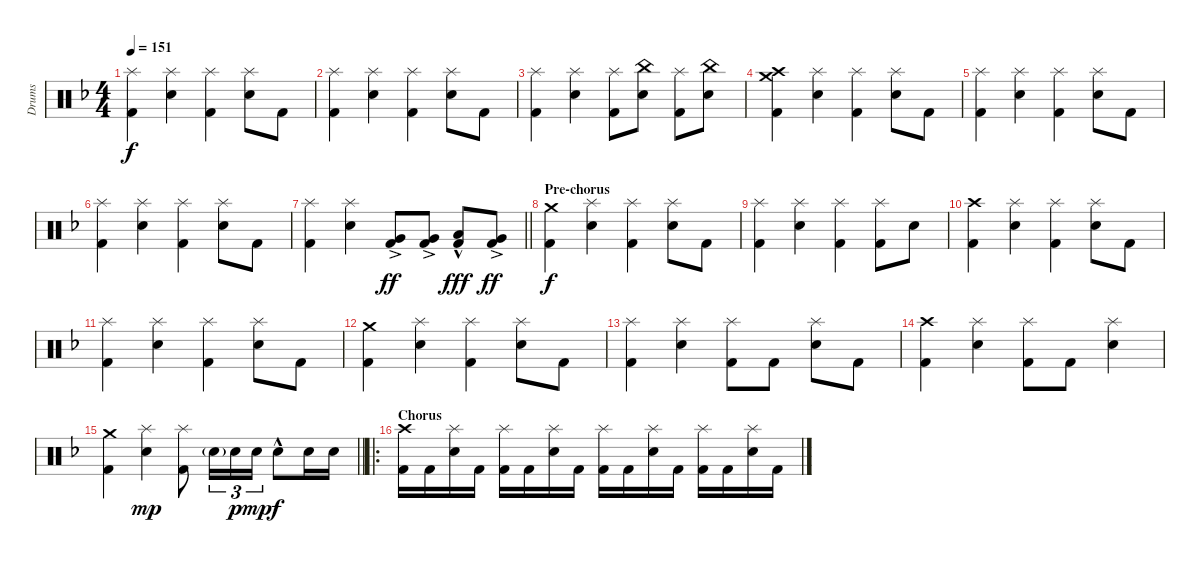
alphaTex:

\track ("Drums" "Drums") {instrument percussion}
\staff {score}
\articulation defaults
\ts (4 4)
\tempo 151
\clef neutral
\ks dminor
("Splash (hit)" "Kick (hit) 2").4{dy f} ("Splash (hit)" "Snare (hit) 2").4 ("Splash (hit)" "Kick (hit) 2").4 ("Splash (hit)" "Snare (hit) 2").8 "Kick (hit) 2".8 |
("Splash (hit)" "Kick (hit) 2").4 ("Splash (hit)" "Snare (hit) 2").4 ("Splash (hit)" "Kick (hit) 2").4 ("Splash (hit)" "Snare (hit) 2").8 "Kick (hit) 2".8 |
("Splash (hit)" "Kick (hit) 2").4 ("Splash (hit)" "Snare (hit) 2").4 ("Splash (hit)" "Kick (hit) 2").8 ("China (hit)" "Snare (hit) 2").8 ("Splash (hit)" "Kick (hit) 2").8 ("China (hit)" "Snare (hit) 2").8 |
("Crash high (hit)" "Crash medium (hit)" "Kick (hit) 2").4 ("Splash (hit)" "Snare (hit) 2").4 ("Splash (hit)" "Kick (hit) 2").4 ("Splash (hit)" "Snare (hit) 2").8 "Kick (hit) 2".8 |
("Splash (hit)" "Kick (hit) 2").4 ("Splash (hit)" "Snare (hit) 2").4 ("Splash (hit)" "Kick (hit) 2").4 ("Splash (hit)" "Snare (hit) 2").8 "Kick (hit) 2".8 |
("Splash (hit)" "Kick (hit) 2").4 ("Splash (hit)" "Snare (hit) 2").4 ("Splash (hit)" "Kick (hit) 2").4 ("Splash (hit)" "Snare (hit) 2").8 "Kick (hit) 2".8 |
\barLineRight lightlight
("Splash (hit)" "Kick (hit) 2").4 ("Splash (hit)" "Snare (hit) 2").4 ("Very Low Tom (hit)"{ac} "Kick (hit) 2").8{dy ff} ("Very Low Tom (hit)"{ac} "Kick (hit) 2").8 ("Low Tom (hit)"{hac} "Kick (hit) 2").8{dy fff} ("Very Low Tom (hit)"{ac} "Kick (hit) 2").8{dy ff} |
\section ("" "Pre-chorus")
("Crash medium (hit)" "Kick (hit) 2").4{dy f} ("Splash (hit)" "Snare (hit) 2").4 ("Splash (hit)" "Kick (hit) 2").4 ("Splash (hit)" "Snare (hit) 2").8 "Kick (hit) 2".8 |
("Splash (hit)" "Kick (hit) 2").4 ("Splash (hit)" "Snare (hit) 2").4 ("Splash (hit)" "Kick (hit) 2").4 ("Splash (hit)" "Kick (hit) 2").8 "Snare (hit) 2".8 |
("Crash high (hit)" "Kick (hit) 2").4 ("Splash (hit)" "Snare (hit) 2").4 ("Splash (hit)" "Kick (hit) 2").4 ("Splash (hit)" "Snare (hit) 2").8 "Kick (hit) 2".8 |
("Splash (hit)" "Kick (hit) 2").4 ("Splash (hit)" "Snare (hit) 2").4 ("Splash (hit)" "Kick (hit) 2").4 ("Splash (hit)" "Snare (hit) 2").8 "Kick (hit) 2".8 |
("Crash medium (hit)" "Kick (hit) 2").4 ("Splash (hit)" "Snare (hit) 2").4 ("Splash (hit)" "Kick (hit) 2").4 ("Splash (hit)" "Snare (hit) 2").8 "Kick (hit) 2".8 |
("Splash (hit)" "Kick (hit) 2").4 ("Splash (hit)" "Snare (hit) 2").4 ("Splash (hit)" "Kick (hit) 2").8 "Kick (hit) 2".8 ("Splash (hit)" "Snare (hit) 2").8 "Kick (hit) 2".8 |
("Crash high (hit)" "Kick (hit) 2").4 ("Splash (hit)" "Snare (hit) 2").4 ("Splash (hit)" "Kick (hit) 2").8 "Kick (hit) 2".8 ("Splash (hit)" "Snare (hit) 2").4 |
\barLineRight lightlight
("Crash medium (hit)" "Kick (hit) 2").4 ("Splash (hit)" "Snare (hit) 2").4{dy mp} ("Splash (hit)" "Kick (hit) 2").8 "Snare (hit) 2"{g}.16{tu (3 2)} "Snare (hit) 2".16{tu (3 2) dy p} "Snare (hit) 2".16{tu (3 2) dy mp} "Snare (hit) 2"{hac}.8{dy f} "Snare (hit) 2".16 "Snare (hit) 2".16 |
\ro
\section ("" "Chorus")
("Crash high (hit)" "Kick (hit) 2").16 "Kick (hit) 2".16 ("Splash (hit)" "Snare (hit) 2").16 "Kick (hit) 2".16 ("Splash (hit)" "Kick (hit) 2").16 "Kick (hit) 2".16 ("Splash (hit)" "Snare (hit) 2").16 "Kick (hit) 2".16 ("Splash (hit)" "Kick (hit) 2").16 "Kick (hit) 2".16 ("Splash (hit)" "Snare (hit) 2").16 "Kick (hit) 2".16 ("Splash (hit)" "Kick (hit) 2").16 "Kick (hit) 2".16 ("Splash (hit)" "Snare (hit) 2").16 "Kick (hit) 2".16
